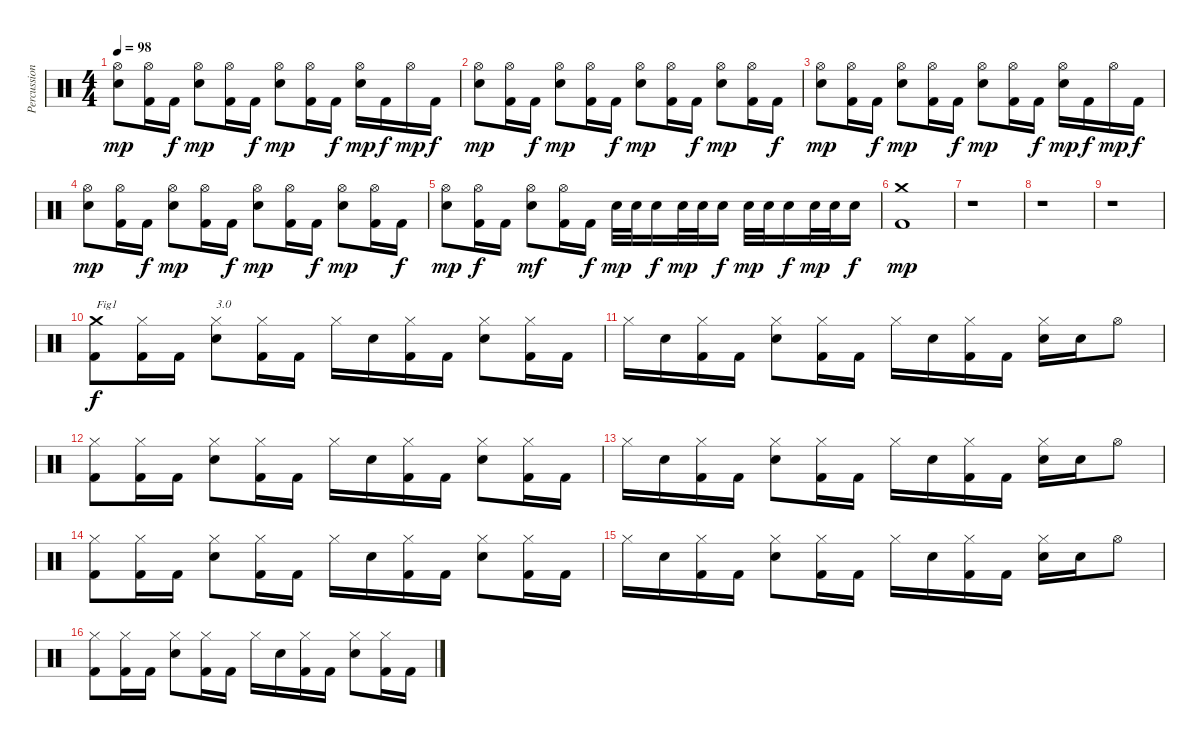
\track ("Percussions" "Percussion") {instrument percussion}
\staff {score}
\articulation defaults
\ts (4 4)
\tempo 98
\clef neutral
\ks c
("Electric Snare (hit)" "Hi-Hat (open)").8{dy mp} ("Kick (hit) 2" "Hi-Hat (open)").16 "Kick (hit) 2".16{dy f} ("Electric Snare (hit)" "Hi-Hat (open)").8{dy mp} ("Kick (hit) 2" "Hi-Hat (open)").16 "Kick (hit) 2".16{dy f} ("Electric Snare (hit)" "Hi-Hat (open)").8{dy mp} ("Kick (hit) 2" "Hi-Hat (open)").16 "Kick (hit) 2".16{dy f} ("Electric Snare (hit)" "Hi-Hat (open)").16{dy mp} "Kick (hit) 2".16{dy f} "Hi-Hat (open)".16{dy mp} "Kick (hit) 2".16{dy f} |
("Electric Snare (hit)" "Hi-Hat (open)").8{dy mp} ("Kick (hit) 2" "Hi-Hat (open)").16 "Kick (hit) 2".16{dy f} ("Electric Snare (hit)" "Hi-Hat (open)").8{dy mp} ("Kick (hit) 2" "Hi-Hat (open)").16 "Kick (hit) 2".16{dy f} ("Electric Snare (hit)" "Hi-Hat (open)").8{dy mp} ("Kick (hit) 2" "Hi-Hat (open)").16 "Kick (hit) 2".16{dy f} ("Electric Snare (hit)" "Hi-Hat (open)").8{dy mp} ("Kick (hit) 2" "Hi-Hat (open)").16 "Kick (hit) 2".16{dy f} |
("Electric Snare (hit)" "Hi-Hat (open)").8{dy mp} ("Kick (hit) 2" "Hi-Hat (open)").16 "Kick (hit) 2".16{dy f} ("Electric Snare (hit)" "Hi-Hat (open)").8{dy mp} ("Kick (hit) 2" "Hi-Hat (open)").16 "Kick (hit) 2".16{dy f} ("Electric Snare (hit)" "Hi-Hat (open)").8{dy mp} ("Kick (hit) 2" "Hi-Hat (open)").16 "Kick (hit) 2".16{dy f} ("Electric Snare (hit)" "Hi-Hat (open)").16{dy mp} "Kick (hit) 2".16{dy f} "Hi-Hat (open)".16{dy mp} "Kick (hit) 2".16{dy f} |
("Electric Snare (hit)" "Hi-Hat (open)").8{dy mp} ("Kick (hit) 2" "Hi-Hat (open)").16 "Kick (hit) 2".16{dy f} ("Electric Snare (hit)" "Hi-Hat (open)").8{dy mp} ("Kick (hit) 2" "Hi-Hat (open)").16 "Kick (hit) 2".16{dy f} ("Electric Snare (hit)" "Hi-Hat (open)").8{dy mp} ("Kick (hit) 2" "Hi-Hat (open)").16 "Kick (hit) 2".16{dy f} ("Electric Snare (hit)" "Hi-Hat (open)").8{dy mp} ("Kick (hit) 2" "Hi-Hat (open)").16 "Kick (hit) 2".16{dy f} |
("Electric Snare (hit)" "Hi-Hat (open)").8{dy mp} ("Kick (hit) 2" "Hi-Hat (open)").16{dy f} "Kick (hit) 2".16 ("Electric Snare (hit)" "Hi-Hat (open)").8{dy mf} ("Kick (hit) 2" "Hi-Hat (open)").16 "Kick (hit) 2".16{dy f} "Electric Snare (hit)".32{dy mp} "Electric Snare (hit)".32 "Electric Snare (hit)".16{dy f} "Electric Snare (hit)".32{dy mp} "Electric Snare (hit)".32 "Electric Snare (hit)".16{dy f} "Electric Snare (hit)".32{dy mp} "Electric Snare (hit)".32 "Electric Snare (hit)".16{dy f} "Electric Snare (hit)".32{dy mp} "Electric Snare (hit)".32 "Electric Snare (hit)".16{dy f} |
("Kick (hit) 2" "Crash medium (hit)").1{dy mp} |
r.1 |
r.1 |
r.1 |
("Kick (hit) 2" "Crash medium (hit)").8{txt "Fig1" dy f} ("Kick (hit) 2" "Hi-Hat (closed)").16 "Kick (hit) 2".16 ("Electric Snare (hit)" "Hi-Hat (closed)").8{txt "3.0"} ("Kick (hit) 2" "Hi-Hat (closed)").16 "Kick (hit) 2".16 "Hi-Hat (closed)".16 "Electric Snare (hit)".16 ("Kick (hit) 2" "Hi-Hat (closed)").16 "Kick (hit) 2".16 ("Electric Snare (hit)" "Hi-Hat (closed)").8 ("Kick (hit) 2" "Hi-Hat (closed)").16 "Kick (hit) 2".16 |
"Hi-Hat (closed)".16 "Electric Snare (hit)".16 ("Kick (hit) 2" "Hi-Hat (closed)").16 "Kick (hit) 2".16 ("Electric Snare (hit)" "Hi-Hat (closed)").8 ("Kick (hit) 2" "Hi-Hat (closed)").16 "Kick (hit) 2".16 "Hi-Hat (closed)".16 "Electric Snare (hit)".16 ("Kick (hit) 2" "Hi-Hat (closed)").16 "Kick (hit) 2".16 ("Electric Snare (hit)" "Hi-Hat (closed)").16 "Electric Snare (hit)".16 "Hi-Hat (open)".8 |
("Kick (hit) 2" "Hi-Hat (closed)").8 ("Kick (hit) 2" "Hi-Hat (closed)").16 "Kick (hit) 2".16 ("Electric Snare (hit)" "Hi-Hat (closed)").8 ("Kick (hit) 2" "Hi-Hat (closed)").16 "Kick (hit) 2".16 "Hi-Hat (closed)".16 "Electric Snare (hit)".16 ("Kick (hit) 2" "Hi-Hat (closed)").16 "Kick (hit) 2".16 ("Electric Snare (hit)" "Hi-Hat (closed)").8 ("Kick (hit) 2" "Hi-Hat (closed)").16 "Kick (hit) 2".16 |
"Hi-Hat (closed)".16 "Electric Snare (hit)".16 ("Kick (hit) 2" "Hi-Hat (closed)").16 "Kick (hit) 2".16 ("Electric Snare (hit)" "Hi-Hat (closed)").8 ("Kick (hit) 2" "Hi-Hat (closed)").16 "Kick (hit) 2".16 "Hi-Hat (closed)".16 "Electric Snare (hit)".16 ("Kick (hit) 2" "Hi-Hat (closed)").16 "Kick (hit) 2".16 ("Electric Snare (hit)" "Hi-Hat (closed)").16 "Electric Snare (hit)".16 "Hi-Hat (open)".8 |
("Kick (hit) 2" "Hi-Hat (closed)").8 ("Kick (hit) 2" "Hi-Hat (closed)").16 "Kick (hit) 2".16 ("Electric Snare (hit)" "Hi-Hat (closed)").8 ("Kick (hit) 2" "Hi-Hat (closed)").16 "Kick (hit) 2".16 "Hi-Hat (closed)".16 "Electric Snare (hit)".16 ("Kick (hit) 2" "Hi-Hat (closed)").16 "Kick (hit) 2".16 ("Electric Snare (hit)" "Hi-Hat (closed)").8 ("Kick (hit) 2" "Hi-Hat (closed)").16 "Kick (hit) 2".16 |
"Hi-Hat (closed)".16 "Electric Snare (hit)".16 ("Kick (hit) 2" "Hi-Hat (closed)").16 "Kick (hit) 2".16 ("Electric Snare (hit)" "Hi-Hat (closed)").8 ("Kick (hit) 2" "Hi-Hat (closed)").16 "Kick (hit) 2".16 "Hi-Hat (closed)".16 "Electric Snare (hit)".16 ("Kick (hit) 2" "Hi-Hat (closed)").16 "Kick (hit) 2".16 ("Electric Snare (hit)" "Hi-Hat (closed)").16 "Electric Snare (hit)".16 "Hi-Hat (open)".8 |
("Kick (hit) 2" "Hi-Hat (closed)").8 ("Kick (hit) 2" "Hi-Hat (closed)").16 "Kick (hit) 2".16 ("Electric Snare (hit)" "Hi-Hat (closed)").8 ("Kick (hit) 2" "Hi-Hat (closed)").16 "Kick (hit) 2".16 "Hi-Hat (closed)".16 "Electric Snare (hit)".16 ("Kick (hit) 2" "Hi-Hat (closed)").16 "Kick (hit) 2".16 ("Electric Snare (hit)" "Hi-Hat (closed)").8 ("Kick (hit) 2" "Hi-Hat (closed)").16 "Kick (hit) 2".16
